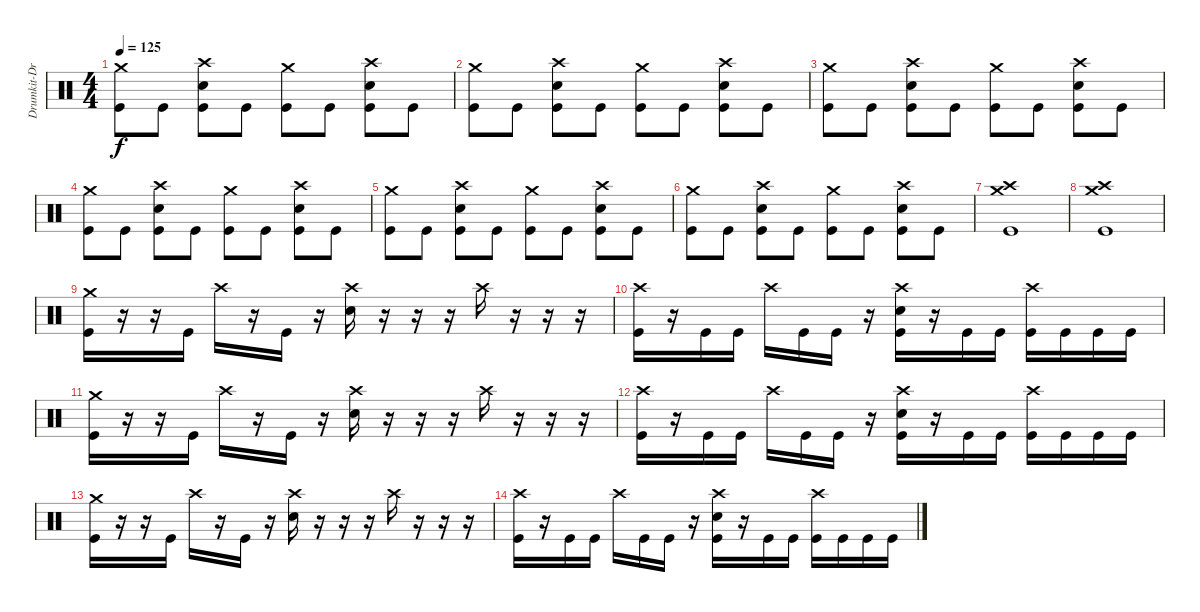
\track ("Drumkit-Drums" "Drumkit-Dr") {instrument percussion}
\staff {score}
\articulation defaults
\ts (4 4)
\tempo 125
\clef neutral
\ks c
("Crash medium (hit)" "Kick (hit)").8{dy f} "Kick (hit)".8 ("Kick (hit)" "Snare (hit) 2" "Crash high (hit)").8 "Kick (hit)".8 ("Kick (hit)" "Crash medium (hit)").8 "Kick (hit)".8 ("Kick (hit)" "Snare (hit) 2" "Crash high (hit)").8 "Kick (hit)".8 |
("Crash medium (hit)" "Kick (hit)").8 "Kick (hit)".8 ("Kick (hit)" "Snare (hit) 2" "Crash high (hit)").8 "Kick (hit)".8 ("Kick (hit)" "Crash medium (hit)").8 "Kick (hit)".8 ("Kick (hit)" "Snare (hit) 2" "Crash high (hit)").8 "Kick (hit)".8 |
("Crash medium (hit)" "Kick (hit)").8 "Kick (hit)".8 ("Kick (hit)" "Snare (hit) 2" "Crash high (hit)").8 "Kick (hit)".8 ("Kick (hit)" "Crash medium (hit)").8 "Kick (hit)".8 ("Kick (hit)" "Snare (hit) 2" "Crash high (hit)").8 "Kick (hit)".8 |
("Crash medium (hit)" "Kick (hit)").8 "Kick (hit)".8 ("Kick (hit)" "Snare (hit) 2" "Crash high (hit)").8 "Kick (hit)".8 ("Kick (hit)" "Crash medium (hit)").8 "Kick (hit)".8 ("Kick (hit)" "Snare (hit) 2" "Crash high (hit)").8 "Kick (hit)".8 |
("Crash medium (hit)" "Kick (hit)").8 "Kick (hit)".8 ("Kick (hit)" "Snare (hit) 2" "Crash high (hit)").8 "Kick (hit)".8 ("Kick (hit)" "Crash medium (hit)").8 "Kick (hit)".8 ("Kick (hit)" "Snare (hit) 2" "Crash high (hit)").8 "Kick (hit)".8 |
("Crash medium (hit)" "Kick (hit)").8 "Kick (hit)".8 ("Kick (hit)" "Snare (hit) 2" "Crash high (hit)").8 "Kick (hit)".8 ("Kick (hit)" "Crash medium (hit)").8 "Kick (hit)".8 ("Kick (hit)" "Snare (hit) 2" "Crash high (hit)").8 "Kick (hit)".8 |
("Crash high (hit)" "Crash medium (hit)" "Kick (hit)").1 |
("Crash high (hit)" "Crash medium (hit)" "Kick (hit)").1 |
("Crash medium (hit)" "Kick (hit)").16 r.16 r.16 "Kick (hit)".16 "Crash high (hit)".16 r.16 "Kick (hit)".16 r.16 ("Crash high (hit)" "Snare (hit) 2").16 r.16 r.16 r.16 "Crash high (hit)".16 r.16 r.16 r.16 |
("Kick (hit)" "Crash high (hit)").16 r.16 "Kick (hit)".16 "Kick (hit)".16 "Crash high (hit)".16 "Kick (hit)".16 "Kick (hit)".16 r.16 ("Crash high (hit)" "Kick (hit)" "Snare (hit) 2").16 r.16 "Kick (hit)".16 "Kick (hit)".16 ("Crash high (hit)" "Kick (hit)").16 "Kick (hit)".16 "Kick (hit)".16 "Kick (hit)".16 |
("Crash medium (hit)" "Kick (hit)").16 r.16 r.16 "Kick (hit)".16 "Crash high (hit)".16 r.16 "Kick (hit)".16 r.16 ("Crash high (hit)" "Snare (hit) 2").16 r.16 r.16 r.16 "Crash high (hit)".16 r.16 r.16 r.16 |
("Kick (hit)" "Crash high (hit)").16 r.16 "Kick (hit)".16 "Kick (hit)".16 "Crash high (hit)".16 "Kick (hit)".16 "Kick (hit)".16 r.16 ("Crash high (hit)" "Kick (hit)" "Snare (hit) 2").16 r.16 "Kick (hit)".16 "Kick (hit)".16 ("Crash high (hit)" "Kick (hit)").16 "Kick (hit)".16 "Kick (hit)".16 "Kick (hit)".16 |
("Crash medium (hit)" "Kick (hit)").16 r.16 r.16 "Kick (hit)".16 "Crash high (hit)".16 r.16 "Kick (hit)".16 r.16 ("Crash high (hit)" "Snare (hit) 2").16 r.16 r.16 r.16 "Crash high (hit)".16 r.16 r.16 r.16 |
("Kick (hit)" "Crash high (hit)").16 r.16 "Kick (hit)".16 "Kick (hit)".16 "Crash high (hit)".16 "Kick (hit)".16 "Kick (hit)".16 r.16 ("Crash high (hit)" "Kick (hit)" "Snare (hit) 2").16 r.16 "Kick (hit)".16 "Kick (hit)".16 ("Crash high (hit)" "Kick (hit)").16 "Kick (hit)".16 "Kick (hit)".16 "Kick (hit)".16
